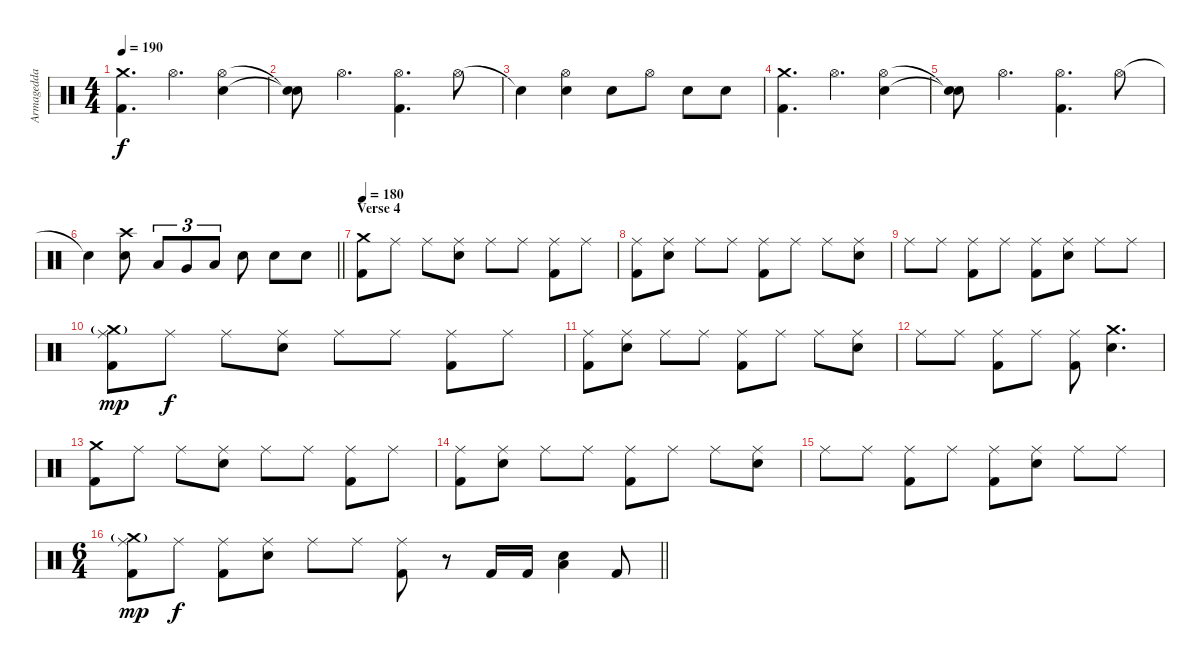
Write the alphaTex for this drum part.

\track ("Armagedda" "Armagedda") {instrument percussion}
\staff {score}
\articulation defaults
\ts (4 4)
\tempo 190
\clef neutral
\ks c
("Crash medium (hit)" "Kick (hit) 2").4{d dy f} "Hi-Hat (open)".4{d} ("Hi-Hat (open)" "Electric Snare (hit)").4 |
("Snare (hit)"{t} "Snare (hit)"{t}).8 "Hi-Hat (open)".4{d} ("Hi-Hat (open)" "Kick (hit) 2").4{d} "Hi-Hat (open)".8 |
"Snare (hit)"{t}.4 ("Hi-Hat (open)" "Electric Snare (hit)").4 "Electric Snare (hit)".8 "Hi-Hat (open)".8 "Electric Snare (hit)".8 "Electric Snare (hit)".8 |
("Crash medium (hit)" "Kick (hit) 2").4{d} "Hi-Hat (open)".4{d} ("Hi-Hat (open)" "Electric Snare (hit)").4 |
("Snare (hit)"{t} "Snare (hit)"{t}).8 "Hi-Hat (open)".4{d} ("Hi-Hat (open)" "Kick (hit) 2").4{d} "Hi-Hat (open)".8 |
\barLineRight lightlight "Snare (hit)"{t}.4
("Crash high (hit)" "Electric Snare (hit)").8 "Low Tom (hit)".8{tu (3 2)} "Very Low Tom (hit)".8{tu (3 2)} "Low Floor Tom (hit)".8{tu (3 2)} "Electric Snare (hit)".8 "Electric Snare (hit)".8 "Electric Snare (hit)".8 |
\section ("" "Verse 4")
\tempo 180
("Crash medium (hit)" "Kick (hit) 2").8 "Ride (middle)".8 "Ride (middle)".8 ("Ride (middle)" "Electric Snare (hit)").8 "Ride (middle)".8 "Ride (middle)".8 ("Ride (middle)" "Kick (hit) 2").8 "Ride (middle)".8 |
("Ride (middle)" "Kick (hit) 2").8 ("Ride (middle)" "Electric Snare (hit)").8 "Ride (middle)".8 "Ride (middle)".8 ("Ride (middle)" "Kick (hit) 2").8 "Ride (middle)".8 "Ride (middle)".8 ("Ride (middle)" "Electric Snare (hit)").8 |
"Ride (middle)".8 "Ride (middle)".8 ("Ride (middle)" "Kick (hit) 2").8 "Ride (middle)".8 ("Ride (middle)" "Kick (hit) 2").8 ("Ride (middle)" "Electric Snare (hit)").8 "Ride (middle)".8 "Ride (middle)".8 |
("Crash medium (hit)"{g} "Ride (middle)" "Kick (hit) 2").8{dy mp} "Ride (middle)".8{dy f} "Ride (middle)".8 ("Ride (middle)" "Electric Snare (hit)").8 "Ride (middle)".8 "Ride (middle)".8 ("Ride (middle)" "Kick (hit) 2").8 "Ride (middle)".8 |
("Ride (middle)" "Kick (hit) 2").8 ("Ride (middle)" "Electric Snare (hit)").8 "Ride (middle)".8 "Ride (middle)".8 ("Ride (middle)" "Kick (hit) 2").8 "Ride (middle)".8 "Ride (middle)".8 ("Ride (middle)" "Electric Snare (hit)").8 |
"Ride (middle)".8 "Ride (middle)".8 ("Ride (middle)" "Kick (hit) 2").8 "Ride (middle)".8 ("Ride (middle)" "Kick (hit) 2").8 ("Crash medium (hit)" "Electric Snare (hit)").4{d} |
("Crash medium (hit)" "Kick (hit) 2").8 "Ride (middle)".8 "Ride (middle)".8 ("Ride (middle)" "Electric Snare (hit)").8 "Ride (middle)".8 "Ride (middle)".8 ("Ride (middle)" "Kick (hit) 2").8 "Ride (middle)".8 |
("Ride (middle)" "Kick (hit) 2").8 ("Ride (middle)" "Electric Snare (hit)").8 "Ride (middle)".8 "Ride (middle)".8 ("Ride (middle)" "Kick (hit) 2").8 "Ride (middle)".8 "Ride (middle)".8 ("Ride (middle)" "Electric Snare (hit)").8 |
"Ride (middle)".8 "Ride (middle)".8 ("Ride (middle)" "Kick (hit) 2").8 "Ride (middle)".8 ("Ride (middle)" "Kick (hit) 2").8 ("Ride (middle)" "Electric Snare (hit)").8 "Ride (middle)".8 "Ride (middle)".8 |
\ts (6 4)
\barLineRight lightlight
("Crash medium (hit)"{g} "Ride (middle)" "Kick (hit) 2").8{dy mp} "Ride (middle)".8{dy f} ("Ride (middle)" "Kick (hit) 2").8 ("Ride (middle)" "Electric Snare (hit)").8 "Ride (middle)".8 "Ride (middle)".8 ("Ride (middle)" "Kick (hit) 2").8 r.8 "Kick (hit) 2".16 "Kick (hit) 2".16 ("Electric Snare (hit)" "Low Floor Tom (hit)").4 "Kick (hit) 2".8
